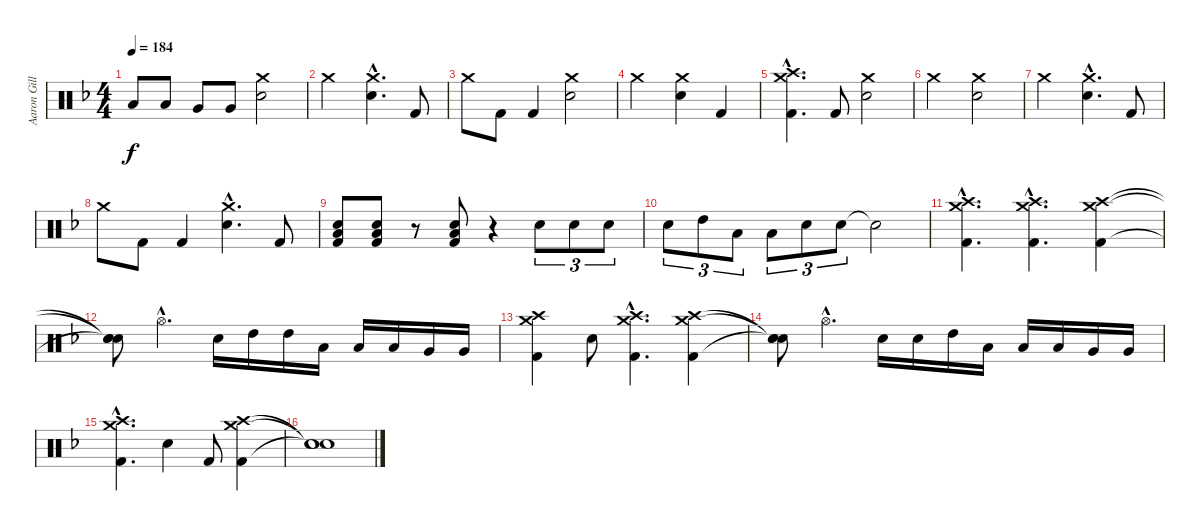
\track ("Aaron Gillespie" "Aaron Gill") {instrument percussion}
\staff {score}
\articulation defaults
\ts (4 4)
\tempo 184
\clef neutral
\ks dminor "Low Tom (hit)".8{dy f} "Low Tom (hit)".8 "Very Low Tom (hit)".8 "Very Low Tom (hit)".8
("Crash medium (hit)" "Snare (hit) 2").2 |
"Crash medium (hit)".2 ("Crash medium (hit)"{hac} "Snare (hit) 2"{hac}).4{d} "Kick (hit) 2".8 |
"Crash medium (hit)".8 "Kick (hit) 2".8 "Kick (hit) 2".4 ("Crash medium (hit)" "Snare (hit) 2").2 |
"Crash medium (hit)".2 ("Crash medium (hit)" "Snare (hit) 2").4 "Kick (hit) 2".4 |
("Crash medium (hit)"{hac} "Crash high (hit)"{hac} "Kick (hit) 2"{hac}).4{d} "Kick (hit) 2".8 ("Crash medium (hit)" "Snare (hit) 2").2 |
"Crash medium (hit)".2 ("Crash medium (hit)" "Snare (hit) 2").2 |
"Crash medium (hit)".2 ("Crash medium (hit)"{hac} "Snare (hit) 2"{hac}).4{d} "Kick (hit) 2".8 |
"Crash medium (hit)".8 "Kick (hit) 2".8 "Kick (hit) 2".4 ("Crash medium (hit)"{hac} "Snare (hit) 2"{hac}).4{d} "Kick (hit) 2".8 |
("Snare (hit) 2" "Low Tom (hit)" "Kick (hit) 2").8 ("Snare (hit) 2" "Low Tom (hit)" "Kick (hit) 2").8 r.8 ("Snare (hit) 2" "Low Tom (hit)" "Kick (hit) 2").8 r.4 "Snare (hit) 2".8{tu (3 2)} "Snare (hit) 2".8{tu (3 2)} "Snare (hit) 2".8{tu (3 2)} |
"Snare (hit) 2".8{tu (3 2)} "High Tom (hit)".8{tu (3 2)} "Low Tom (hit)".8{tu (3 2)} "Low Tom (hit)".8{tu (3 2)} "Snare (hit) 2".8{tu (3 2)} "Snare (hit) 2".8{tu (3 2)} "Snare (hit)"{t}.2 |
("Crash medium (hit)"{hac} "Crash high (hit)"{hac} "Kick (hit) 2"{hac}).4{d} ("Crash medium (hit)"{hac} "Crash high (hit)"{hac} "Kick (hit) 2"{hac}).4{d} ("Crash medium (hit)" "Crash high (hit)" "Kick (hit) 2").4 |
("Snare (hit)"{t} "Snare (hit)"{t} "Snare (hit)"{t}).8 "Hi-Hat (open)"{hac}.4{d} "Snare (hit) 2".16 "High Tom (hit)".16 "High Tom (hit)".16 "Low Tom (hit)".16 "Low Tom (hit)".16 "Low Tom (hit)".16 "Very Low Tom (hit)".16 "Very Low Tom (hit)".16 |
("Crash medium (hit)" "Crash high (hit)" "Kick (hit) 2").4 "Snare (hit) 2".8 ("Crash medium (hit)"{hac} "Crash high (hit)"{hac} "Kick (hit) 2"{hac}).4{d} ("Crash medium (hit)" "Crash high (hit)" "Kick (hit) 2").4 |
("Snare (hit)"{t} "Snare (hit)"{t} "Snare (hit)"{t}).8 "Hi-Hat (open)"{hac}.4{d} "Snare (hit) 2".16 "Snare (hit) 2".16 "High Tom (hit)".16 "Low Tom (hit)".16 "Low Tom (hit)".16 "Low Tom (hit)".16 "Very Low Tom (hit)".16 "Very Low Tom (hit)".16 |
("Crash medium (hit)"{hac} "Crash high (hit)"{hac} "Kick (hit) 2"{hac}).4{d} "Snare (hit) 2".4 "Kick (hit) 2".8 ("Crash medium (hit)" "Crash high (hit)" "Kick (hit) 2").4 |
("Snare (hit)"{t} "Snare (hit)"{t} "Snare (hit)"{t}).1
